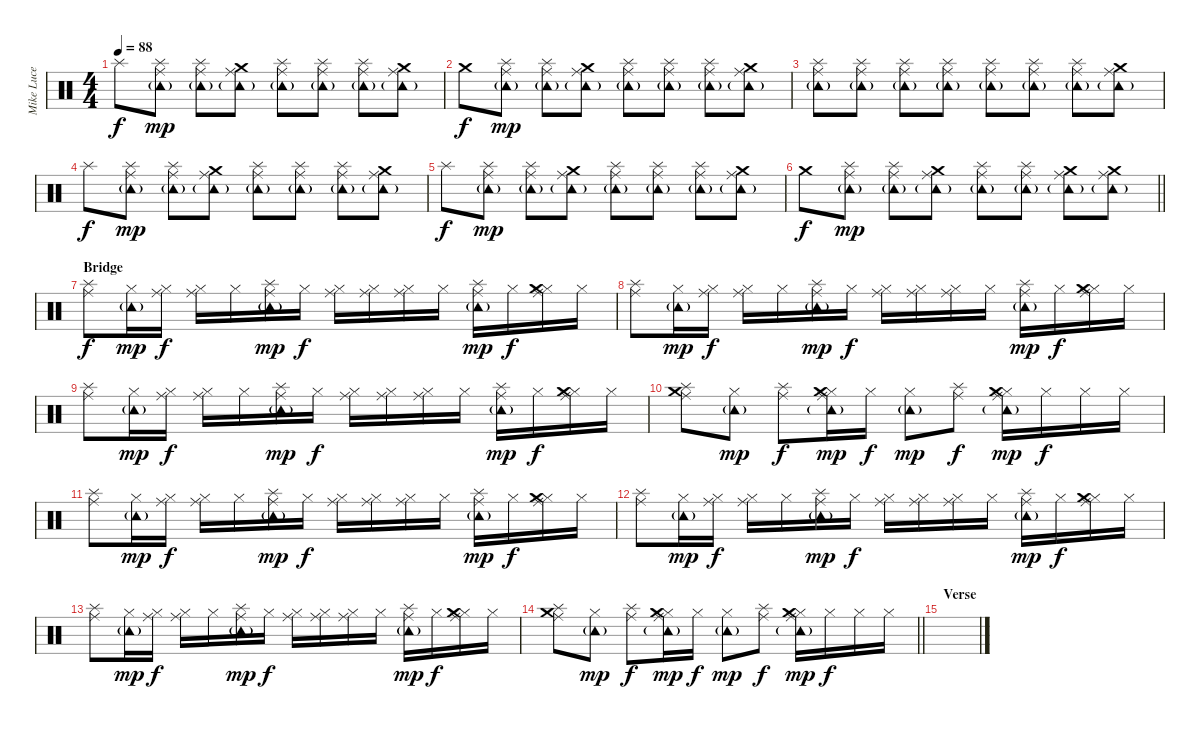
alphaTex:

\track ("Mike Luce (Drums)" "Mike Luce ") {instrument percussion}
\staff {score}
\articulation defaults
\ts (4 4)
\tempo 88
\clef neutral
\ks c "Splash (hit)".8{dy f}
("Splash (hit)" "Tambourine (hit)"{g} "Ride (middle)").8{dy mp} ("Splash (hit)" "Tambourine (hit)"{g} "Ride (middle)").8 ("Crash medium (hit)" "Tambourine (hit)"{g} "Ride (middle)").8 ("Splash (hit)" "Tambourine (hit)"{g} "Ride (middle)").8 ("Splash (hit)" "Tambourine (hit)"{g} "Ride (middle)").8 ("Splash (hit)" "Tambourine (hit)"{g} "Ride (middle)").8 ("Crash medium (hit)" "Tambourine (hit)"{g} "Ride (middle)").8 |
"Crash medium (hit)".8{dy f} ("Splash (hit)" "Tambourine (hit)"{g} "Ride (middle)").8{dy mp} ("Splash (hit)" "Tambourine (hit)"{g} "Ride (middle)").8 ("Crash medium (hit)" "Tambourine (hit)"{g} "Ride (middle)").8 ("Splash (hit)" "Tambourine (hit)"{g} "Ride (middle)").8 ("Splash (hit)" "Tambourine (hit)"{g} "Ride (middle)").8 ("Splash (hit)" "Tambourine (hit)"{g} "Ride (middle)").8 ("Crash medium (hit)" "Tambourine (hit)"{g} "Ride (middle)").8 |
("Splash (hit)" "Tambourine (hit)"{g} "Ride (middle)").8 ("Splash (hit)" "Tambourine (hit)"{g} "Ride (middle)").8 ("Splash (hit)" "Tambourine (hit)"{g} "Ride (middle)").8 ("Splash (hit)" "Tambourine (hit)"{g} "Ride (middle)").8 ("Splash (hit)" "Tambourine (hit)"{g} "Ride (middle)").8 ("Splash (hit)" "Tambourine (hit)"{g} "Ride (middle)").8 ("Splash (hit)" "Tambourine (hit)"{g} "Ride (middle)").8 ("Crash medium (hit)" "Tambourine (hit)"{g} "Ride (middle)").8 |
"Splash (hit)".8{dy f} ("Splash (hit)" "Tambourine (hit)"{g} "Ride (middle)").8{dy mp} ("Splash (hit)" "Tambourine (hit)"{g} "Ride (middle)").8 ("Crash medium (hit)" "Tambourine (hit)"{g} "Ride (middle)").8 ("Splash (hit)" "Tambourine (hit)"{g} "Ride (middle)").8 ("Splash (hit)" "Tambourine (hit)"{g} "Ride (middle)").8 ("Splash (hit)" "Tambourine (hit)"{g} "Ride (middle)").8 ("Crash medium (hit)" "Tambourine (hit)"{g} "Ride (middle)").8 |
"Splash (hit)".8{dy f} ("Splash (hit)" "Tambourine (hit)"{g} "Ride (middle)").8{dy mp} ("Splash (hit)" "Tambourine (hit)"{g} "Ride (middle)").8 ("Crash medium (hit)" "Tambourine (hit)"{g} "Ride (middle)").8 ("Splash (hit)" "Tambourine (hit)"{g} "Ride (middle)").8 ("Splash (hit)" "Tambourine (hit)"{g} "Ride (middle)").8 ("Splash (hit)" "Tambourine (hit)"{g} "Ride (middle)").8 ("Crash medium (hit)" "Tambourine (hit)"{g} "Ride (middle)").8 |
\barLineRight lightlight "Crash medium (hit)".8{dy f}
("Splash (hit)" "Tambourine (hit)"{g} "Ride (middle)").8{dy mp} ("Splash (hit)" "Tambourine (hit)"{g} "Ride (middle)").8 ("Crash medium (hit)" "Tambourine (hit)"{g} "Ride (middle)").8 ("Splash (hit)" "Tambourine (hit)"{g} "Ride (middle)").8 ("Splash (hit)" "Tambourine (hit)"{g} "Ride (middle)").8 ("Crash medium (hit)" "Tambourine (hit)"{g} "Ride (middle)").8 ("Crash medium (hit)" "Tambourine (hit)"{g} "Ride (middle)").8 |
\section ("" "Bridge")
("Splash (hit)" "Ride (middle)").8{dy f} ("Hi-Hat (closed)" "Tambourine (hit)"{g}).16{dy mp} ("Hi-Hat (closed)" "Ride (middle)").16{dy f} ("Hi-Hat (closed)" "Ride (middle)").16 "Hi-Hat (closed)".16 ("Splash (hit)" "Tambourine (hit)"{g} "Ride (middle)").16{dy mp} "Hi-Hat (closed)".16{dy f} ("Hi-Hat (closed)" "Ride (middle)").16 ("Hi-Hat (closed)" "Ride (middle)").16 ("Hi-Hat (closed)" "Ride (middle)").16 "Hi-Hat (closed)".16 ("Splash (hit)" "Tambourine (hit)"{g} "Ride (middle)").16{dy mp} "Hi-Hat (closed)".16{dy f} ("Hi-Hat (closed)" "Crash medium (hit)" "Ride (middle)").16 "Hi-Hat (closed)".16 |
("Splash (hit)" "Ride (middle)").8 ("Hi-Hat (closed)" "Tambourine (hit)"{g}).16{dy mp} ("Hi-Hat (closed)" "Ride (middle)").16{dy f} ("Hi-Hat (closed)" "Ride (middle)").16 "Hi-Hat (closed)".16 ("Splash (hit)" "Tambourine (hit)"{g} "Ride (middle)").16{dy mp} "Hi-Hat (closed)".16{dy f} ("Hi-Hat (closed)" "Ride (middle)").16 ("Hi-Hat (closed)" "Ride (middle)").16 ("Hi-Hat (closed)" "Ride (middle)").16 "Hi-Hat (closed)".16 ("Splash (hit)" "Tambourine (hit)"{g} "Ride (middle)").16{dy mp} "Hi-Hat (closed)".16{dy f} ("Hi-Hat (closed)" "Crash medium (hit)" "Ride (middle)").16 "Hi-Hat (closed)".16 |
("Splash (hit)" "Ride (middle)").8 ("Hi-Hat (closed)" "Tambourine (hit)"{g}).16{dy mp} ("Hi-Hat (closed)" "Ride (middle)").16{dy f} ("Hi-Hat (closed)" "Ride (middle)").16 "Hi-Hat (closed)".16 ("Splash (hit)" "Tambourine (hit)"{g} "Ride (middle)").16{dy mp} "Hi-Hat (closed)".16{dy f} ("Hi-Hat (closed)" "Ride (middle)").16 ("Hi-Hat (closed)" "Ride (middle)").16 ("Hi-Hat (closed)" "Ride (middle)").16 "Hi-Hat (closed)".16 ("Splash (hit)" "Tambourine (hit)"{g} "Ride (middle)").16{dy mp} "Hi-Hat (closed)".16{dy f} ("Hi-Hat (closed)" "Crash medium (hit)" "Ride (middle)").16 "Hi-Hat (closed)".16 |
("Splash (hit)" "Crash medium (hit)" "Ride (middle)").8 ("Hi-Hat (closed)" "Tambourine (hit)"{g}).8{dy mp} ("Splash (hit)" "Ride (middle)").8{dy f} ("Hi-Hat (closed)" "Tambourine (hit)"{g} "Crash medium (hit)" "Ride (middle)").16{dy mp} "Hi-Hat (closed)".16{dy f} ("Hi-Hat (closed)" "Tambourine (hit)"{g}).8{dy mp} ("Splash (hit)" "Ride (middle)").8{dy f} ("Hi-Hat (closed)" "Tambourine (hit)"{g} "Crash medium (hit)" "Ride (middle)").16{dy mp} "Hi-Hat (closed)".16{dy f} "Hi-Hat (closed)".16 "Hi-Hat (closed)".16 |
("Splash (hit)" "Ride (middle)").8 ("Hi-Hat (closed)" "Tambourine (hit)"{g}).16{dy mp} ("Hi-Hat (closed)" "Ride (middle)").16{dy f} ("Hi-Hat (closed)" "Ride (middle)").16 "Hi-Hat (closed)".16 ("Splash (hit)" "Tambourine (hit)"{g} "Ride (middle)").16{dy mp} "Hi-Hat (closed)".16{dy f} ("Hi-Hat (closed)" "Ride (middle)").16 ("Hi-Hat (closed)" "Ride (middle)").16 ("Hi-Hat (closed)" "Ride (middle)").16 "Hi-Hat (closed)".16 ("Splash (hit)" "Tambourine (hit)"{g} "Ride (middle)").16{dy mp} "Hi-Hat (closed)".16{dy f} ("Hi-Hat (closed)" "Crash medium (hit)" "Ride (middle)").16 "Hi-Hat (closed)".16 |
("Splash (hit)" "Ride (middle)").8 ("Hi-Hat (closed)" "Tambourine (hit)"{g}).16{dy mp} ("Hi-Hat (closed)" "Ride (middle)").16{dy f} ("Hi-Hat (closed)" "Ride (middle)").16 "Hi-Hat (closed)".16 ("Splash (hit)" "Tambourine (hit)"{g} "Ride (middle)").16{dy mp} "Hi-Hat (closed)".16{dy f} ("Hi-Hat (closed)" "Ride (middle)").16 ("Hi-Hat (closed)" "Ride (middle)").16 ("Hi-Hat (closed)" "Ride (middle)").16 "Hi-Hat (closed)".16 ("Splash (hit)" "Tambourine (hit)"{g} "Ride (middle)").16{dy mp} "Hi-Hat (closed)".16{dy f} ("Hi-Hat (closed)" "Crash medium (hit)" "Ride (middle)").16 "Hi-Hat (closed)".16 |
("Splash (hit)" "Ride (middle)").8 ("Hi-Hat (closed)" "Tambourine (hit)"{g}).16{dy mp} ("Hi-Hat (closed)" "Ride (middle)").16{dy f} ("Hi-Hat (closed)" "Ride (middle)").16 "Hi-Hat (closed)".16 ("Splash (hit)" "Tambourine (hit)"{g} "Ride (middle)").16{dy mp} "Hi-Hat (closed)".16{dy f} ("Hi-Hat (closed)" "Ride (middle)").16 ("Hi-Hat (closed)" "Ride (middle)").16 ("Hi-Hat (closed)" "Ride (middle)").16 "Hi-Hat (closed)".16 ("Splash (hit)" "Tambourine (hit)"{g} "Ride (middle)").16{dy mp} "Hi-Hat (closed)".16{dy f} ("Hi-Hat (closed)" "Crash medium (hit)" "Ride (middle)").16 "Hi-Hat (closed)".16 |
\barLineRight lightlight
("Splash (hit)" "Crash medium (hit)" "Ride (middle)").8 ("Hi-Hat (closed)" "Tambourine (hit)"{g}).8{dy mp} ("Splash (hit)" "Ride (middle)").8{dy f} ("Hi-Hat (closed)" "Tambourine (hit)"{g} "Crash medium (hit)" "Ride (middle)").16{dy mp} "Hi-Hat (closed)".16{dy f} ("Hi-Hat (closed)" "Tambourine (hit)"{g}).8{dy mp} ("Splash (hit)" "Ride (middle)").8{dy f} ("Hi-Hat (closed)" "Tambourine (hit)"{g} "Crash medium (hit)" "Ride (middle)").16{dy mp} "Hi-Hat (closed)".16{dy f} "Hi-Hat (closed)".16 "Hi-Hat (closed)".16 |
\section ("" "Verse")
